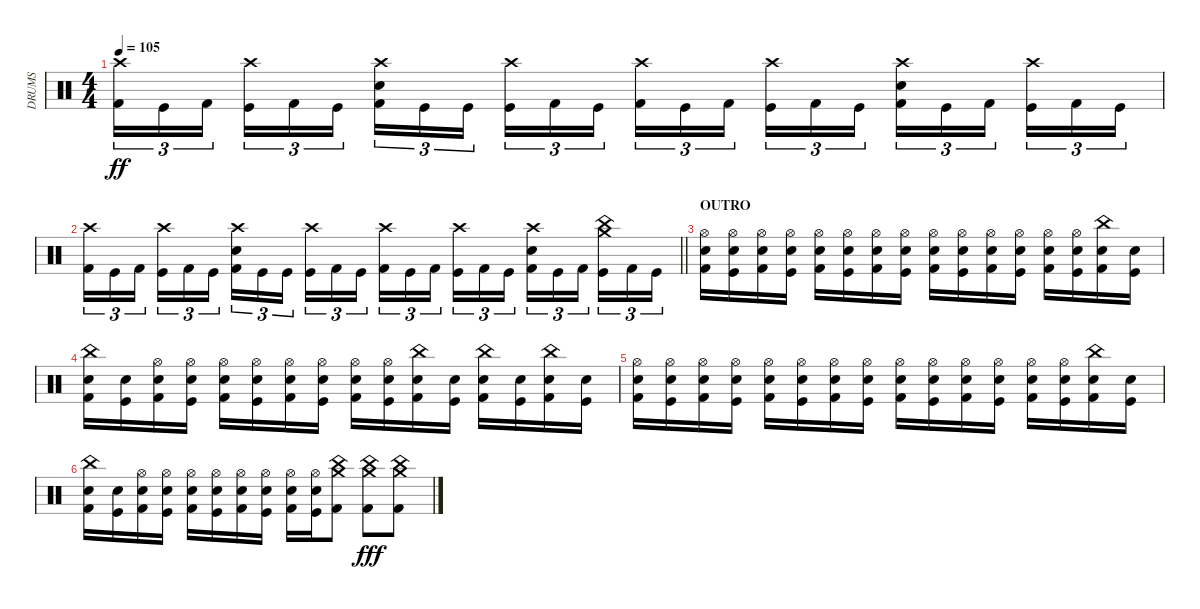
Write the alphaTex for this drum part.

\track ("DRUMS" "DRUMS") {instrument percussion}
\staff {score}
\articulation defaults
\ts (4 4)
\tempo 105
\clef neutral
\ks c
("Crash high (hit)" "Kick (hit) 2").16{tu (3 2) dy ff} "Kick (hit)".16{tu (3 2)} "Kick (hit) 2".16{tu (3 2) beam splitsecondary} ("Crash high (hit)" "Kick (hit)").16{tu (3 2)} "Kick (hit) 2".16{tu (3 2)} "Kick (hit)".16{tu (3 2)} ("Crash high (hit)" "Snare (hit) 2" "Kick (hit) 2").16{tu (3 2)} "Kick (hit)".16{tu (3 2)} "Kick (hit)".16{tu (3 2) beam splitsecondary} ("Crash high (hit)" "Kick (hit)").16{tu (3 2)} "Kick (hit) 2".16{tu (3 2)} "Kick (hit)".16{tu (3 2)} ("Crash high (hit)" "Kick (hit) 2").16{tu (3 2)} "Kick (hit)".16{tu (3 2)} "Kick (hit) 2".16{tu (3 2) beam splitsecondary} ("Crash high (hit)" "Kick (hit)").16{tu (3 2)} "Kick (hit) 2".16{tu (3 2)} "Kick (hit)".16{tu (3 2)} ("Crash high (hit)" "Snare (hit) 2" "Kick (hit) 2").16{tu (3 2)} "Kick (hit)".16{tu (3 2)} "Kick (hit) 2".16{tu (3 2) beam splitsecondary} ("Crash high (hit)" "Kick (hit)").16{tu (3 2)} "Kick (hit) 2".16{tu (3 2)} "Kick (hit)".16{tu (3 2)} |
\barLineRight lightlight
("Crash high (hit)" "Kick (hit) 2").16{tu (3 2)} "Kick (hit)".16{tu (3 2)} "Kick (hit) 2".16{tu (3 2) beam splitsecondary} ("Crash high (hit)" "Kick (hit)").16{tu (3 2)} "Kick (hit) 2".16{tu (3 2)} "Kick (hit)".16{tu (3 2)} ("Crash high (hit)" "Snare (hit) 2" "Kick (hit) 2").16{tu (3 2)} "Kick (hit)".16{tu (3 2)} "Kick (hit)".16{tu (3 2) beam splitsecondary} ("Crash high (hit)" "Kick (hit)").16{tu (3 2)} "Kick (hit) 2".16{tu (3 2)} "Kick (hit)".16{tu (3 2)} ("Crash high (hit)" "Kick (hit) 2").16{tu (3 2)} "Kick (hit)".16{tu (3 2)} "Kick (hit) 2".16{tu (3 2) beam splitsecondary} ("Crash high (hit)" "Kick (hit)").16{tu (3 2)} "Kick (hit) 2".16{tu (3 2)} "Kick (hit)".16{tu (3 2)} ("Crash high (hit)" "Snare (hit) 2" "Kick (hit) 2").16{tu (3 2)} "Kick (hit)".16{tu (3 2)} "Kick (hit) 2".16{tu (3 2) beam splitsecondary} ("Crash medium (hit)" "China (hit)" "Kick (hit)").16{tu (3 2)} "Kick (hit) 2".16{tu (3 2)} "Kick (hit)".16{tu (3 2)} |
\section ("" "OUTRO")
("Hi-Hat (open)" "Snare (hit) 2" "Kick (hit) 2").16 ("Hi-Hat (open)" "Snare (hit) 2" "Kick (hit)").16 ("Hi-Hat (open)" "Snare (hit) 2" "Kick (hit) 2").16 ("Hi-Hat (open)" "Snare (hit) 2" "Kick (hit)").16 ("Hi-Hat (open)" "Snare (hit) 2" "Kick (hit) 2").16 ("Hi-Hat (open)" "Snare (hit) 2" "Kick (hit)").16 ("Hi-Hat (open)" "Snare (hit) 2" "Kick (hit) 2").16 ("Hi-Hat (open)" "Snare (hit) 2" "Kick (hit)").16 ("Hi-Hat (open)" "Snare (hit) 2" "Kick (hit) 2").16 ("Hi-Hat (open)" "Snare (hit) 2" "Kick (hit)").16 ("Hi-Hat (open)" "Snare (hit) 2" "Kick (hit) 2").16 ("Hi-Hat (open)" "Snare (hit) 2" "Kick (hit)").16 ("Hi-Hat (open)" "Snare (hit) 2" "Kick (hit) 2").16 ("Hi-Hat (open)" "Snare (hit) 2" "Kick (hit)").16 ("China (hit)" "Snare (hit) 2" "Kick (hit) 2").16 ("Snare (hit) 2" "Kick (hit)").16 |
("China (hit)" "Snare (hit) 2" "Kick (hit) 2").16 ("Snare (hit) 2" "Kick (hit)").16 ("Hi-Hat (open)" "Snare (hit) 2" "Kick (hit) 2").16 ("Hi-Hat (open)" "Snare (hit) 2" "Kick (hit)").16 ("Hi-Hat (open)" "Snare (hit) 2" "Kick (hit) 2").16 ("Hi-Hat (open)" "Snare (hit) 2" "Kick (hit)").16 ("Hi-Hat (open)" "Snare (hit) 2" "Kick (hit) 2").16 ("Hi-Hat (open)" "Snare (hit) 2" "Kick (hit)").16 ("Hi-Hat (open)" "Snare (hit) 2" "Kick (hit) 2").16 ("Hi-Hat (open)" "Snare (hit) 2" "Kick (hit)").16 ("China (hit)" "Snare (hit) 2" "Kick (hit) 2").16 ("Snare (hit) 2" "Kick (hit)").16 ("China (hit)" "Snare (hit) 2" "Kick (hit) 2").16 ("Snare (hit) 2" "Kick (hit)").16 ("China (hit)" "Snare (hit) 2" "Kick (hit) 2").16 ("Snare (hit) 2" "Kick (hit)").16 |
("Hi-Hat (open)" "Snare (hit) 2" "Kick (hit) 2").16 ("Hi-Hat (open)" "Snare (hit) 2" "Kick (hit)").16 ("Hi-Hat (open)" "Snare (hit) 2" "Kick (hit) 2").16 ("Hi-Hat (open)" "Snare (hit) 2" "Kick (hit)").16 ("Hi-Hat (open)" "Snare (hit) 2" "Kick (hit) 2").16 ("Hi-Hat (open)" "Snare (hit) 2" "Kick (hit)").16 ("Hi-Hat (open)" "Snare (hit) 2" "Kick (hit) 2").16 ("Hi-Hat (open)" "Snare (hit) 2" "Kick (hit)").16 ("Hi-Hat (open)" "Snare (hit) 2" "Kick (hit) 2").16 ("Hi-Hat (open)" "Snare (hit) 2" "Kick (hit)").16 ("Hi-Hat (open)" "Snare (hit) 2" "Kick (hit) 2").16 ("Hi-Hat (open)" "Snare (hit) 2" "Kick (hit)").16 ("Hi-Hat (open)" "Snare (hit) 2" "Kick (hit) 2").16 ("Hi-Hat (open)" "Snare (hit) 2" "Kick (hit)").16 ("China (hit)" "Snare (hit) 2" "Kick (hit) 2").16 ("Snare (hit) 2" "Kick (hit)").16 |
("China (hit)" "Snare (hit) 2" "Kick (hit) 2").16 ("Snare (hit) 2" "Kick (hit)").16 ("Hi-Hat (open)" "Snare (hit) 2" "Kick (hit) 2").16 ("Hi-Hat (open)" "Snare (hit) 2" "Kick (hit)").16 ("Hi-Hat (open)" "Snare (hit) 2" "Kick (hit) 2").16 ("Hi-Hat (open)" "Snare (hit) 2" "Kick (hit)").16 ("Hi-Hat (open)" "Snare (hit) 2" "Kick (hit) 2").16 ("Hi-Hat (open)" "Snare (hit) 2" "Kick (hit)").16 ("Hi-Hat (open)" "Snare (hit) 2" "Kick (hit) 2").16 ("Hi-Hat (open)" "Snare (hit) 2" "Kick (hit)").16 ("China (hit)" "Crash medium (hit)" "Kick (hit) 2").8 ("China (hit)" "Crash medium (hit)" "Kick (hit) 2").8{dy fff} ("China (hit)" "Crash medium (hit)" "Kick (hit) 2").8
